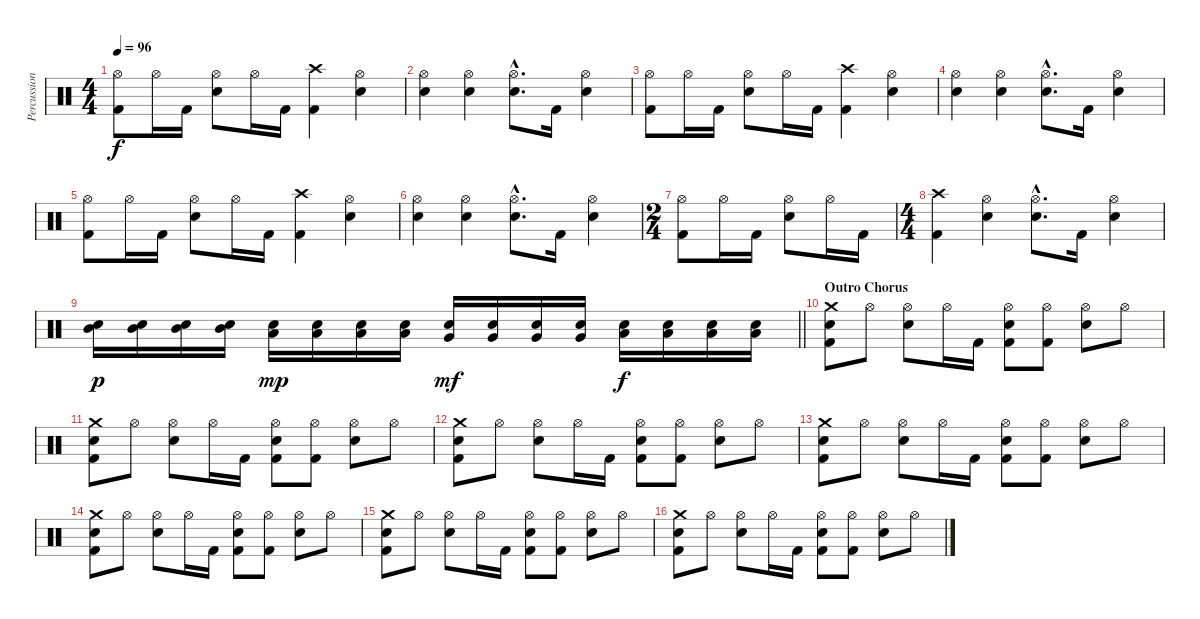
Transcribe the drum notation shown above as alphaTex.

\track ("Percussion" "Percussion") {instrument percussion}
\staff {score}
\articulation defaults
\ts (4 4)
\tempo 96
\clef neutral
\ks c
("Hi-Hat (open)" "Kick (hit) 2").8{dy f} "Hi-Hat (open)".16 "Kick (hit) 2".16 ("Hi-Hat (open)" "Snare (hit) 2").8 "Hi-Hat (open)".16 "Kick (hit) 2".16 ("Crash high (hit)" "Kick (hit) 2").4 ("Hi-Hat (open)" "Snare (hit) 2").4 |
("Hi-Hat (open)" "Snare (hit) 2").4 ("Hi-Hat (open)" "Snare (hit) 2").4 ("Hi-Hat (open)"{hac} "Snare (hit) 2"{hac}).8{d} "Kick (hit) 2".16 ("Hi-Hat (open)" "Snare (hit) 2").4 |
("Hi-Hat (open)" "Kick (hit) 2").8 "Hi-Hat (open)".16 "Kick (hit) 2".16 ("Hi-Hat (open)" "Snare (hit) 2").8 "Hi-Hat (open)".16 "Kick (hit) 2".16 ("Crash high (hit)" "Kick (hit) 2").4 ("Hi-Hat (open)" "Snare (hit) 2").4 |
("Hi-Hat (open)" "Snare (hit) 2").4 ("Hi-Hat (open)" "Snare (hit) 2").4 ("Hi-Hat (open)"{hac} "Snare (hit) 2"{hac}).8{d} "Kick (hit) 2".16 ("Hi-Hat (open)" "Snare (hit) 2").4 |
("Hi-Hat (open)" "Kick (hit) 2").8 "Hi-Hat (open)".16 "Kick (hit) 2".16 ("Hi-Hat (open)" "Snare (hit) 2").8 "Hi-Hat (open)".16 "Kick (hit) 2".16 ("Crash high (hit)" "Kick (hit) 2").4 ("Hi-Hat (open)" "Snare (hit) 2").4 |
("Hi-Hat (open)" "Snare (hit) 2").4 ("Hi-Hat (open)" "Snare (hit) 2").4 ("Hi-Hat (open)"{hac} "Snare (hit) 2"{hac}).8{d} "Kick (hit) 2".16 ("Hi-Hat (open)" "Snare (hit) 2").4 |
\ts (2 4)
("Hi-Hat (open)" "Kick (hit) 2").8 "Hi-Hat (open)".16 "Kick (hit) 2".16 ("Hi-Hat (open)" "Snare (hit) 2").8 "Hi-Hat (open)".16 "Kick (hit) 2".16 |
\ts (4 4)
("Crash high (hit)" "Kick (hit) 2").4 ("Hi-Hat (open)" "Snare (hit) 2").4 ("Hi-Hat (open)"{hac} "Snare (hit) 2"{hac}).8{d} "Kick (hit) 2".16 ("Hi-Hat (open)" "Snare (hit) 2").4 |
\barLineRight lightlight
("Snare (hit) 2" "Mid Tom (hit)").16{dy p} ("Snare (hit) 2" "Mid Tom (hit)").16 ("Snare (hit) 2" "Mid Tom (hit)").16 ("Snare (hit) 2" "Mid Tom (hit)").16 ("Snare (hit) 2" "Low Tom (hit)").16{dy mp} ("Snare (hit) 2" "Low Tom (hit)").16 ("Snare (hit) 2" "Low Tom (hit)").16 ("Snare (hit) 2" "Low Tom (hit)").16 ("Snare (hit) 2" "Very Low Tom (hit)").16{dy mf} ("Snare (hit) 2" "Very Low Tom (hit)").16 ("Snare (hit) 2" "Very Low Tom (hit)").16 ("Snare (hit) 2" "Very Low Tom (hit)").16 ("Snare (hit) 2" "Low Floor Tom (hit)").16{dy f} ("Snare (hit) 2" "Low Floor Tom (hit)").16 ("Snare (hit) 2" "Low Floor Tom (hit)").16 ("Snare (hit) 2" "Low Floor Tom (hit)").16 |
\section ("" "Outro Chorus")
("Crash medium (hit)" "Snare (hit) 2" "Kick (hit) 2").8 "Hi-Hat (open)".8 ("Hi-Hat (open)" "Snare (hit) 2").8 "Hi-Hat (open)".16 "Kick (hit) 2".16 ("Hi-Hat (open)" "Snare (hit) 2" "Kick (hit) 2").8 ("Hi-Hat (open)" "Kick (hit) 2").8 ("Hi-Hat (open)" "Snare (hit) 2").8 "Hi-Hat (open)".8 |
("Crash medium (hit)" "Snare (hit) 2" "Kick (hit) 2").8 "Hi-Hat (open)".8 ("Hi-Hat (open)" "Snare (hit) 2").8 "Hi-Hat (open)".16 "Kick (hit) 2".16 ("Hi-Hat (open)" "Snare (hit) 2" "Kick (hit) 2").8 ("Hi-Hat (open)" "Kick (hit) 2").8 ("Hi-Hat (open)" "Snare (hit) 2").8 "Hi-Hat (open)".8 |
("Crash medium (hit)" "Snare (hit) 2" "Kick (hit) 2").8 "Hi-Hat (open)".8 ("Hi-Hat (open)" "Snare (hit) 2").8 "Hi-Hat (open)".16 "Kick (hit) 2".16 ("Hi-Hat (open)" "Snare (hit) 2" "Kick (hit) 2").8 ("Hi-Hat (open)" "Kick (hit) 2").8 ("Hi-Hat (open)" "Snare (hit) 2").8 "Hi-Hat (open)".8 |
("Crash medium (hit)" "Snare (hit) 2" "Kick (hit) 2").8 "Hi-Hat (open)".8 ("Hi-Hat (open)" "Snare (hit) 2").8 "Hi-Hat (open)".16 "Kick (hit) 2".16 ("Hi-Hat (open)" "Snare (hit) 2" "Kick (hit) 2").8 ("Hi-Hat (open)" "Kick (hit) 2").8 ("Hi-Hat (open)" "Snare (hit) 2").8 "Hi-Hat (open)".8 |
("Crash medium (hit)" "Snare (hit) 2" "Kick (hit) 2").8 "Hi-Hat (open)".8 ("Hi-Hat (open)" "Snare (hit) 2").8 "Hi-Hat (open)".16 "Kick (hit) 2".16 ("Hi-Hat (open)" "Snare (hit) 2" "Kick (hit) 2").8 ("Hi-Hat (open)" "Kick (hit) 2").8 ("Hi-Hat (open)" "Snare (hit) 2").8 "Hi-Hat (open)".8 |
("Crash medium (hit)" "Snare (hit) 2" "Kick (hit) 2").8 "Hi-Hat (open)".8 ("Hi-Hat (open)" "Snare (hit) 2").8 "Hi-Hat (open)".16 "Kick (hit) 2".16 ("Hi-Hat (open)" "Snare (hit) 2" "Kick (hit) 2").8 ("Hi-Hat (open)" "Kick (hit) 2").8 ("Hi-Hat (open)" "Snare (hit) 2").8 "Hi-Hat (open)".8 |
("Crash medium (hit)" "Snare (hit) 2" "Kick (hit) 2").8 "Hi-Hat (open)".8 ("Hi-Hat (open)" "Snare (hit) 2").8 "Hi-Hat (open)".16 "Kick (hit) 2".16 ("Hi-Hat (open)" "Snare (hit) 2" "Kick (hit) 2").8 ("Hi-Hat (open)" "Kick (hit) 2").8 ("Hi-Hat (open)" "Snare (hit) 2").8 "Hi-Hat (open)".8
